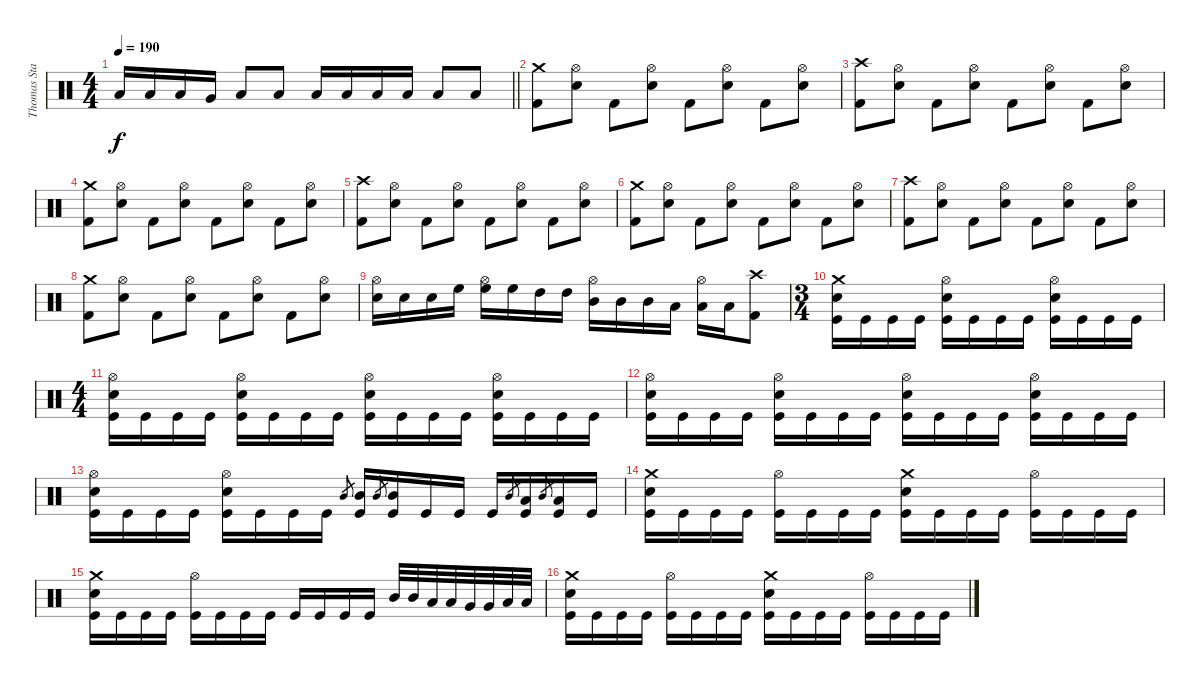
\track ("Thomas Stauch" "Thomas Sta") {instrument percussion}
\staff {score}
\articulation defaults
\ts (4 4)
\tempo 190
\clef neutral
\barLineRight lightlight
\ks c "Low Tom (hit)".16{dy f} "Low Tom (hit)".16 "Low Tom (hit)".16 "Very Low Tom (hit)".16 "Low Tom (hit)".8 "Low Tom (hit)".8 "Low Tom (hit)".16 "Low Tom (hit)".16 "Low Tom (hit)".16 "Low Tom (hit)".16 "Low Tom (hit)".8 "Low Tom (hit)".8
|
("Crash medium (hit)" "Kick (hit) 2").8 ("Hi-Hat (open)" "Electric Snare (hit)").8 "Kick (hit) 2".8 ("Hi-Hat (open)" "Electric Snare (hit)").8 "Kick (hit) 2".8 ("Hi-Hat (open)" "Electric Snare (hit)").8 "Kick (hit) 2".8 ("Hi-Hat (open)" "Electric Snare (hit)").8 |
("Crash high (hit)" "Kick (hit) 2").8 ("Hi-Hat (open)" "Electric Snare (hit)").8 "Kick (hit) 2".8 ("Hi-Hat (open)" "Electric Snare (hit)").8 "Kick (hit) 2".8 ("Hi-Hat (open)" "Electric Snare (hit)").8 "Kick (hit) 2".8 ("Hi-Hat (open)" "Electric Snare (hit)").8 |
("Crash medium (hit)" "Kick (hit) 2").8 ("Hi-Hat (open)" "Electric Snare (hit)").8 "Kick (hit) 2".8 ("Hi-Hat (open)" "Electric Snare (hit)").8 "Kick (hit) 2".8 ("Hi-Hat (open)" "Electric Snare (hit)").8 "Kick (hit) 2".8 ("Hi-Hat (open)" "Electric Snare (hit)").8 |
("Crash high (hit)" "Kick (hit) 2").8 ("Hi-Hat (open)" "Electric Snare (hit)").8 "Kick (hit) 2".8 ("Hi-Hat (open)" "Electric Snare (hit)").8 "Kick (hit) 2".8 ("Hi-Hat (open)" "Electric Snare (hit)").8 "Kick (hit) 2".8 ("Hi-Hat (open)" "Electric Snare (hit)").8 |
("Crash medium (hit)" "Kick (hit) 2").8 ("Hi-Hat (open)" "Electric Snare (hit)").8 "Kick (hit) 2".8 ("Hi-Hat (open)" "Electric Snare (hit)").8 "Kick (hit) 2".8 ("Hi-Hat (open)" "Electric Snare (hit)").8 "Kick (hit) 2".8 ("Hi-Hat (open)" "Electric Snare (hit)").8 |
("Crash high (hit)" "Kick (hit) 2").8 ("Hi-Hat (open)" "Electric Snare (hit)").8 "Kick (hit) 2".8 ("Hi-Hat (open)" "Electric Snare (hit)").8 "Kick (hit) 2".8 ("Hi-Hat (open)" "Electric Snare (hit)").8 "Kick (hit) 2".8 ("Hi-Hat (open)" "Electric Snare (hit)").8 |
("Crash medium (hit)" "Kick (hit) 2").8 ("Hi-Hat (open)" "Electric Snare (hit)").8 "Kick (hit) 2".8 ("Hi-Hat (open)" "Electric Snare (hit)").8 "Kick (hit) 2".8 ("Hi-Hat (open)" "Electric Snare (hit)").8 "Kick (hit) 2".8 ("Hi-Hat (open)" "Electric Snare (hit)").8 |
("Snare (hit) 2" "Hi-Hat (open)").16 "Snare (hit) 2".16 "Snare (hit) 2".16 "High Floor Tom (hit)".16 ("Hi-Hat (open)" "High Floor Tom (hit)").16 "High Floor Tom (hit)".16 "High Tom (hit)".16 "High Tom (hit)".16 ("Hi-Hat (open)" "Mid Tom (hit)").16 "Mid Tom (hit)".16 "Mid Tom (hit)".16 "Low Tom (hit)".16 ("Low Tom (hit)" "Hi-Hat (open)").16 "Low Tom (hit)".16 ("Kick (hit) 2" "Crash high (hit)").8 |
\ts (3 4)
("Crash medium (hit)" "Electric Snare (hit)" "Kick (hit)").16 "Kick (hit)".16 "Kick (hit)".16 "Kick (hit)".16 ("Hi-Hat (open)" "Electric Snare (hit)" "Kick (hit)").16 "Kick (hit)".16 "Kick (hit)".16 "Kick (hit)".16 ("Hi-Hat (open)" "Electric Snare (hit)" "Kick (hit)").16 "Kick (hit)".16 "Kick (hit)".16 "Kick (hit)".16 |
\ts (4 4)
("Hi-Hat (open)" "Electric Snare (hit)" "Kick (hit)").16 "Kick (hit)".16 "Kick (hit)".16 "Kick (hit)".16 ("Hi-Hat (open)" "Electric Snare (hit)" "Kick (hit)").16 "Kick (hit)".16 "Kick (hit)".16 "Kick (hit)".16 ("Hi-Hat (open)" "Electric Snare (hit)" "Kick (hit)").16 "Kick (hit)".16 "Kick (hit)".16 "Kick (hit)".16 ("Hi-Hat (open)" "Electric Snare (hit)" "Kick (hit)").16 "Kick (hit)".16 "Kick (hit)".16 "Kick (hit)".16 |
("Hi-Hat (open)" "Electric Snare (hit)" "Kick (hit)").16 "Kick (hit)".16 "Kick (hit)".16 "Kick (hit)".16 ("Hi-Hat (open)" "Electric Snare (hit)" "Kick (hit)").16 "Kick (hit)".16 "Kick (hit)".16 "Kick (hit)".16 ("Hi-Hat (open)" "Electric Snare (hit)" "Kick (hit)").16 "Kick (hit)".16 "Kick (hit)".16 "Kick (hit)".16 ("Hi-Hat (open)" "Electric Snare (hit)" "Kick (hit)").16 "Kick (hit)".16 "Kick (hit)".16 "Kick (hit)".16 |
("Hi-Hat (open)" "Electric Snare (hit)" "Kick (hit)").16 "Kick (hit)".16 "Kick (hit)".16 "Kick (hit)".16 ("Hi-Hat (open)" "Electric Snare (hit)" "Kick (hit)").16 "Kick (hit)".16 "Kick (hit)".16 "Kick (hit)".16 "Mid Tom (hit)".8{gr} ("Mid Tom (hit)" "Kick (hit)").16 "Mid Tom (hit)".8{gr} ("Mid Tom (hit)" "Kick (hit)").16 "Kick (hit)".16 "Kick (hit)".16 "Kick (hit)".16 "Mid Tom (hit)".8{gr} ("Low Tom (hit)" "Kick (hit)").16 "Mid Tom (hit)".8{gr} ("Low Tom (hit)" "Kick (hit)").16 "Kick (hit)".16 |
("Crash medium (hit)" "Electric Snare (hit)" "Kick (hit)").16 "Kick (hit)".16 "Kick (hit)".16 "Kick (hit)".16 ("Hi-Hat (open)" "Kick (hit)").16 "Kick (hit)".16 "Kick (hit)".16 "Kick (hit)".16 ("Crash medium (hit)" "Electric Snare (hit)" "Kick (hit)").16 "Kick (hit)".16 "Kick (hit)".16 "Kick (hit)".16 ("Hi-Hat (open)" "Kick (hit)").16 "Kick (hit)".16 "Kick (hit)".16 "Kick (hit)".16 |
("Crash medium (hit)" "Electric Snare (hit)" "Kick (hit)").16 "Kick (hit)".16 "Kick (hit)".16 "Kick (hit)".16 ("Hi-Hat (open)" "Kick (hit)").16 "Kick (hit)".16 "Kick (hit)".16 "Kick (hit)".16 "Kick (hit)".16 "Kick (hit)".16 "Kick (hit)".16 "Kick (hit)".16 "Mid Tom (hit)".32 "Mid Tom (hit)".32 "Low Tom (hit)".32 "Low Tom (hit)".32 "Very Low Tom (hit)".32 "Very Low Tom (hit)".32 "Low Floor Tom (hit)".32 "Low Floor Tom (hit)".32 |
("Crash medium (hit)" "Electric Snare (hit)" "Kick (hit)").16 "Kick (hit)".16 "Kick (hit)".16 "Kick (hit)".16 ("Hi-Hat (open)" "Kick (hit)").16 "Kick (hit)".16 "Kick (hit)".16 "Kick (hit)".16 ("Crash medium (hit)" "Electric Snare (hit)" "Kick (hit)").16 "Kick (hit)".16 "Kick (hit)".16 "Kick (hit)".16 ("Hi-Hat (open)" "Kick (hit)").16 "Kick (hit)".16 "Kick (hit)".16 "Kick (hit)".16
